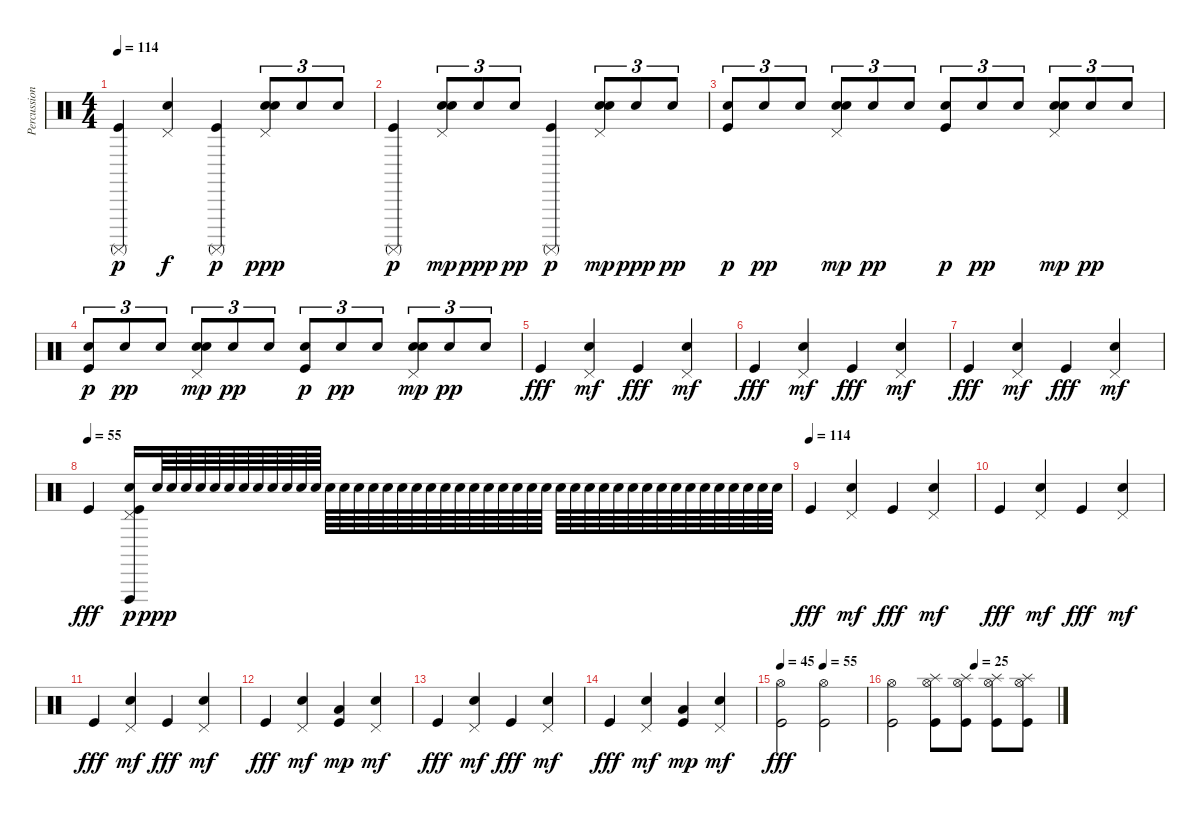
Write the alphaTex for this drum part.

\track ("Percussion" "Percussion") {instrument percussion}
\staff {score}
\articulation defaults
\ts (4 4)
\tempo 114
\clef neutral
\ks c
("Kick (hit)" "Surdo (mute)").4{dy p} ("Pedal Hi-Hat (hit)" "Electric Snare (hit)").4{dy f} ("Kick (hit)" "Surdo (mute)").4{dy p} ("Pedal Hi-Hat (hit)" "Snare (hit) 2" "Electric Snare (hit)").8{tu (3 2) dy ppp} "Snare (hit) 2".8{tu (3 2)} "Snare (hit) 2".8{tu (3 2)} |
("Kick (hit)" "Surdo (mute)").4{dy p} ("Pedal Hi-Hat (hit)" "Snare (hit) 2" "Electric Snare (hit)").8{tu (3 2) dy mp} "Snare (hit) 2".8{tu (3 2) dy ppp} "Snare (hit) 2".8{tu (3 2) dy pp} ("Kick (hit)" "Surdo (mute)").4{dy p} ("Pedal Hi-Hat (hit)" "Snare (hit) 2" "Electric Snare (hit)").8{tu (3 2) dy mp} "Snare (hit) 2".8{tu (3 2) dy ppp} "Snare (hit) 2".8{tu (3 2) dy pp} |
("Kick (hit)" "Snare (hit) 2").8{tu (3 2) dy p} "Snare (hit) 2".8{tu (3 2) dy pp} "Snare (hit) 2".8{tu (3 2)} ("Pedal Hi-Hat (hit)" "Snare (hit) 2" "Electric Snare (hit)").8{tu (3 2) dy mp} "Snare (hit) 2".8{tu (3 2) dy pp} "Snare (hit) 2".8{tu (3 2)} ("Kick (hit)" "Snare (hit) 2").8{tu (3 2) dy p} "Snare (hit) 2".8{tu (3 2) dy pp} "Snare (hit) 2".8{tu (3 2)} ("Pedal Hi-Hat (hit)" "Snare (hit) 2" "Electric Snare (hit)").8{tu (3 2) dy mp} "Snare (hit) 2".8{tu (3 2) dy pp} "Snare (hit) 2".8{tu (3 2)} |
("Kick (hit)" "Snare (hit) 2").8{tu (3 2) dy p} "Snare (hit) 2".8{tu (3 2) dy pp} "Snare (hit) 2".8{tu (3 2)} ("Pedal Hi-Hat (hit)" "Snare (hit) 2" "Electric Snare (hit)").8{tu (3 2) dy mp} "Snare (hit) 2".8{tu (3 2) dy pp} "Snare (hit) 2".8{tu (3 2)} ("Kick (hit)" "Snare (hit) 2").8{tu (3 2) dy p} "Snare (hit) 2".8{tu (3 2) dy pp} "Snare (hit) 2".8{tu (3 2)} ("Pedal Hi-Hat (hit)" "Snare (hit) 2" "Electric Snare (hit)").8{tu (3 2) dy mp} "Snare (hit) 2".8{tu (3 2) dy pp} "Snare (hit) 2".8{tu (3 2)} |
"Kick (hit)".4{dy fff} ("Pedal Hi-Hat (hit)" "Electric Snare (hit)").4{dy mf} "Kick (hit)".4{dy fff} ("Pedal Hi-Hat (hit)" "Electric Snare (hit)").4{dy mf} |
"Kick (hit)".4{dy fff} ("Pedal Hi-Hat (hit)" "Electric Snare (hit)").4{dy mf} "Kick (hit)".4{dy fff} ("Pedal Hi-Hat (hit)" "Electric Snare (hit)").4{dy mf} |
"Kick (hit)".4{dy fff} ("Pedal Hi-Hat (hit)" "Electric Snare (hit)").4{dy mf} "Kick (hit)".4{dy fff} ("Pedal Hi-Hat (hit)" "Electric Snare (hit)").4{dy mf} |
\tempo (55)
"Kick (hit)".4{dy fff} ("Vibraslap (hit)" "Pedal Hi-Hat (hit)" "Snare (hit) 2" "Kick (hit)").16{dy p} "Snare (hit) 2".64{dy ppp} "Snare (hit) 2".64 "Snare (hit) 2".64 "Snare (hit) 2".64 "Snare (hit) 2".64 "Snare (hit) 2".64 "Snare (hit) 2".64 "Snare (hit) 2".64 "Snare (hit) 2".64 "Snare (hit) 2".64 "Snare (hit) 2".64 "Snare (hit) 2".64 "Snare (hit) 2".64 "Snare (hit) 2".64 "Snare (hit) 2".64 "Snare (hit) 2".64 "Snare (hit) 2".64 "Snare (hit) 2".64 "Snare (hit) 2".64 "Snare (hit) 2".64 "Snare (hit) 2".64 "Snare (hit) 2".64 "Snare (hit) 2".64 "Snare (hit) 2".64 "Snare (hit) 2".64 "Snare (hit) 2".64 "Snare (hit) 2".64 "Snare (hit) 2".64 "Snare (hit) 2".64 "Snare (hit) 2".64 "Snare (hit) 2".64 "Snare (hit) 2".64 "Snare (hit) 2".64 "Snare (hit) 2".64 "Snare (hit) 2".64 "Snare (hit) 2".64 "Snare (hit) 2".64 "Snare (hit) 2".64 "Snare (hit) 2".64 "Snare (hit) 2".64 "Snare (hit) 2".64 "Snare (hit) 2".64 "Snare (hit) 2".64 "Snare (hit) 2".64 |
\tempo (114)
"Kick (hit)".4{dy fff} ("Pedal Hi-Hat (hit)" "Electric Snare (hit)").4{dy mf} "Kick (hit)".4{dy fff} ("Pedal Hi-Hat (hit)" "Electric Snare (hit)").4{dy mf} |
"Kick (hit)".4{dy fff} ("Pedal Hi-Hat (hit)" "Electric Snare (hit)").4{dy mf} "Kick (hit)".4{dy fff} ("Pedal Hi-Hat (hit)" "Electric Snare (hit)").4{dy mf} |
"Kick (hit)".4{dy fff} ("Pedal Hi-Hat (hit)" "Electric Snare (hit)").4{dy mf} "Kick (hit)".4{dy fff} ("Pedal Hi-Hat (hit)" "Electric Snare (hit)").4{dy mf} |
"Kick (hit)".4{dy fff} ("Pedal Hi-Hat (hit)" "Electric Snare (hit)").4{dy mf} ("Kick (hit)" "Low Tom (hit)").4{dy mp} ("Pedal Hi-Hat (hit)" "Electric Snare (hit)").4{dy mf} |
"Kick (hit)".4{dy fff} ("Pedal Hi-Hat (hit)" "Electric Snare (hit)").4{dy mf} "Kick (hit)".4{dy fff} ("Pedal Hi-Hat (hit)" "Electric Snare (hit)").4{dy mf} |
"Kick (hit)".4{dy fff} ("Pedal Hi-Hat (hit)" "Electric Snare (hit)").4{dy mf} ("Kick (hit)" "Low Tom (hit)").4{dy mp} ("Pedal Hi-Hat (hit)" "Electric Snare (hit)").4{dy mf} |
\tempo 45
\tempo (55 0.5)
("Hi-Hat (open)" "Kick (hit)").2{dy fff} ("Hi-Hat (open)" "Kick (hit)").2 |
\tempo (25 0.5)
("Hi-Hat (open)" "Kick (hit)").2 ("Splash (hit)" "Hi-Hat (open)" "Kick (hit)").8 ("Splash (hit)" "Hi-Hat (open)" "Kick (hit)").8 ("Splash (hit)" "Hi-Hat (open)" "Kick (hit)").8 ("Splash (hit)" "Hi-Hat (open)" "Kick (hit)").8
